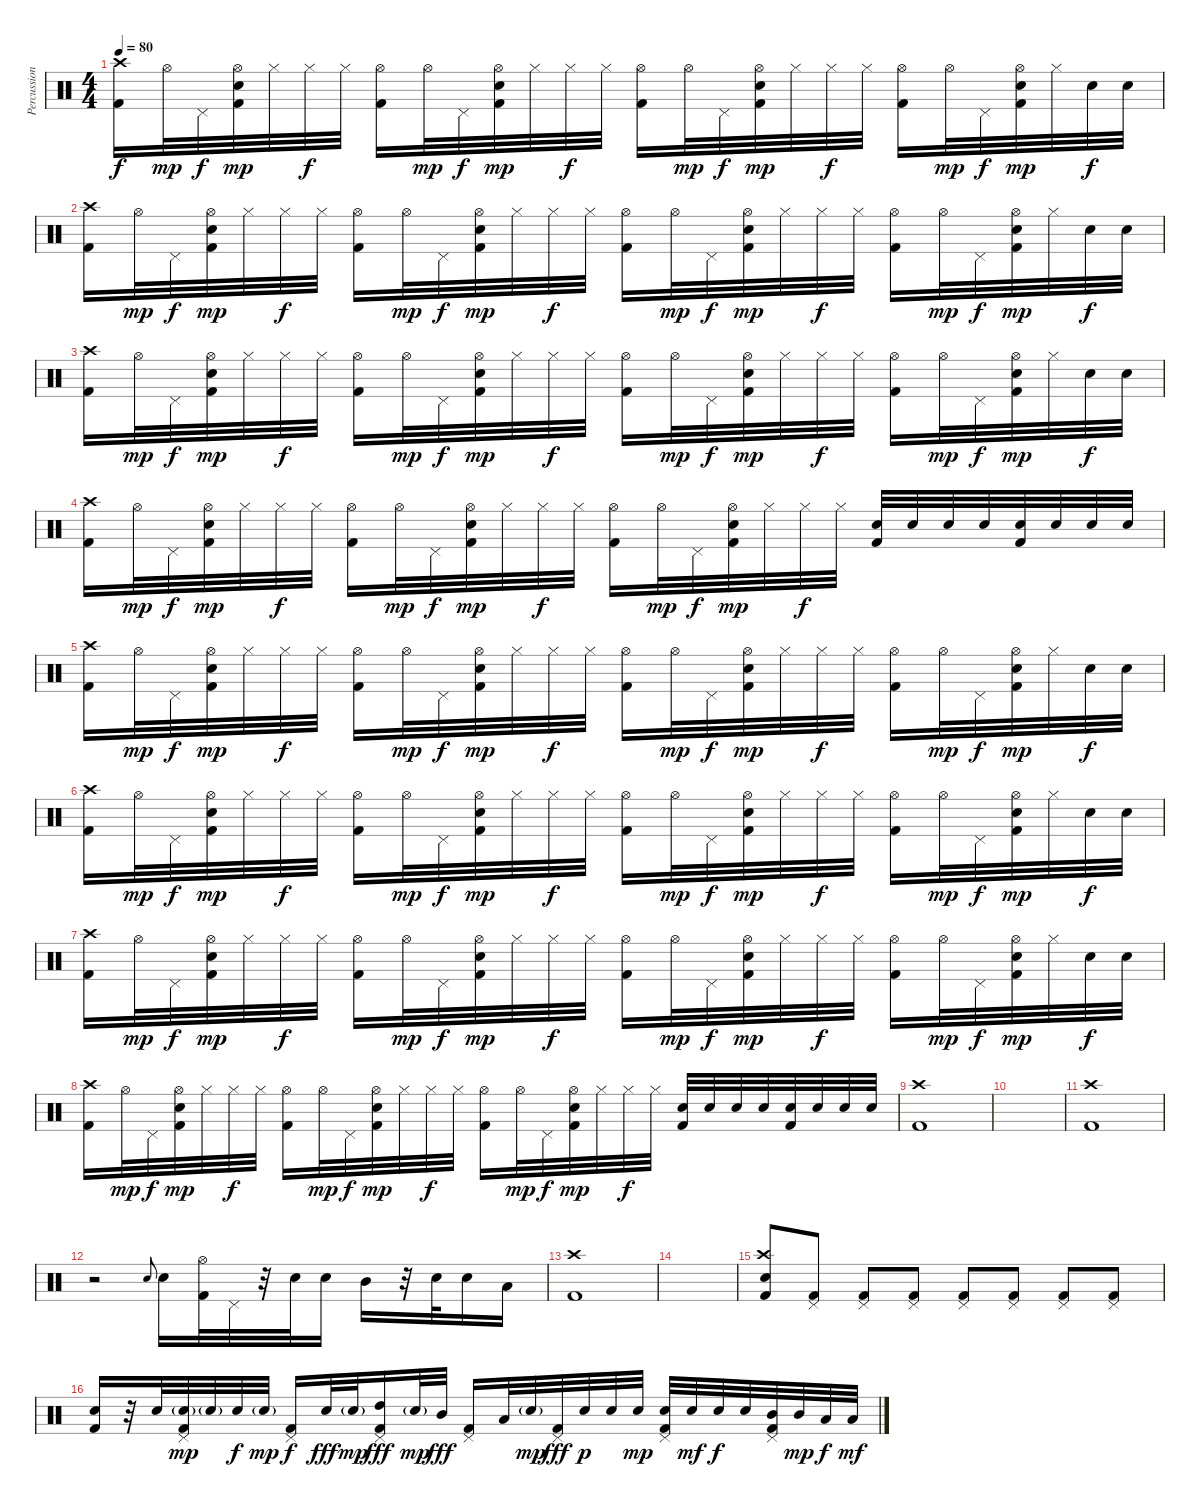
\track ("Percussion" "Percussion") {instrument percussion}
\staff {score}
\articulation defaults
\ts (4 4)
\tempo 80
\clef neutral
\ks c
("Kick (hit) 2" "Crash high (hit)").16{dy f} "Hi-Hat (open)".32{dy mp} "Pedal Hi-Hat (hit)".32{dy f} ("Hi-Hat (open)" "Electric Snare (hit)" "Kick (hit) 2").32{dy mp} "Hi-Hat (closed)".32 "Hi-Hat (closed)".32{dy f} "Hi-Hat (closed)".32 ("Kick (hit) 2" "Hi-Hat (open)").16 "Hi-Hat (open)".32{dy mp} "Pedal Hi-Hat (hit)".32{dy f} ("Hi-Hat (open)" "Electric Snare (hit)" "Kick (hit) 2").32{dy mp} "Hi-Hat (closed)".32 "Hi-Hat (closed)".32{dy f} "Hi-Hat (closed)".32 ("Kick (hit) 2" "Hi-Hat (open)").16 "Hi-Hat (open)".32{dy mp} "Pedal Hi-Hat (hit)".32{dy f} ("Hi-Hat (open)" "Electric Snare (hit)" "Kick (hit) 2").32{dy mp} "Hi-Hat (closed)".32 "Hi-Hat (closed)".32{dy f} "Hi-Hat (closed)".32 ("Kick (hit) 2" "Hi-Hat (open)").16 "Hi-Hat (open)".32{dy mp} "Pedal Hi-Hat (hit)".32{dy f} ("Hi-Hat (open)" "Electric Snare (hit)" "Kick (hit) 2").32{dy mp} "Hi-Hat (closed)".32 "Electric Snare (hit)".32{dy f} "Electric Snare (hit)".32 |
("Kick (hit) 2" "Crash high (hit)").16 "Hi-Hat (open)".32{dy mp} "Pedal Hi-Hat (hit)".32{dy f} ("Hi-Hat (open)" "Electric Snare (hit)" "Kick (hit) 2").32{dy mp} "Hi-Hat (closed)".32 "Hi-Hat (closed)".32{dy f} "Hi-Hat (closed)".32 ("Kick (hit) 2" "Hi-Hat (open)").16 "Hi-Hat (open)".32{dy mp} "Pedal Hi-Hat (hit)".32{dy f} ("Hi-Hat (open)" "Electric Snare (hit)" "Kick (hit) 2").32{dy mp} "Hi-Hat (closed)".32 "Hi-Hat (closed)".32{dy f} "Hi-Hat (closed)".32 ("Kick (hit) 2" "Hi-Hat (open)").16 "Hi-Hat (open)".32{dy mp} "Pedal Hi-Hat (hit)".32{dy f} ("Hi-Hat (open)" "Electric Snare (hit)" "Kick (hit) 2").32{dy mp} "Hi-Hat (closed)".32 "Hi-Hat (closed)".32{dy f} "Hi-Hat (closed)".32 ("Kick (hit) 2" "Hi-Hat (open)").16 "Hi-Hat (open)".32{dy mp} "Pedal Hi-Hat (hit)".32{dy f} ("Hi-Hat (open)" "Electric Snare (hit)" "Kick (hit) 2").32{dy mp} "Hi-Hat (closed)".32 "Electric Snare (hit)".32{dy f} "Electric Snare (hit)".32 |
("Kick (hit) 2" "Crash high (hit)").16 "Hi-Hat (open)".32{dy mp} "Pedal Hi-Hat (hit)".32{dy f} ("Hi-Hat (open)" "Electric Snare (hit)" "Kick (hit) 2").32{dy mp} "Hi-Hat (closed)".32 "Hi-Hat (closed)".32{dy f} "Hi-Hat (closed)".32 ("Kick (hit) 2" "Hi-Hat (open)").16 "Hi-Hat (open)".32{dy mp} "Pedal Hi-Hat (hit)".32{dy f} ("Hi-Hat (open)" "Electric Snare (hit)" "Kick (hit) 2").32{dy mp} "Hi-Hat (closed)".32 "Hi-Hat (closed)".32{dy f} "Hi-Hat (closed)".32 ("Kick (hit) 2" "Hi-Hat (open)").16 "Hi-Hat (open)".32{dy mp} "Pedal Hi-Hat (hit)".32{dy f} ("Hi-Hat (open)" "Electric Snare (hit)" "Kick (hit) 2").32{dy mp} "Hi-Hat (closed)".32 "Hi-Hat (closed)".32{dy f} "Hi-Hat (closed)".32 ("Kick (hit) 2" "Hi-Hat (open)").16 "Hi-Hat (open)".32{dy mp} "Pedal Hi-Hat (hit)".32{dy f} ("Hi-Hat (open)" "Electric Snare (hit)" "Kick (hit) 2").32{dy mp} "Hi-Hat (closed)".32 "Electric Snare (hit)".32{dy f} "Electric Snare (hit)".32 |
("Kick (hit) 2" "Crash high (hit)").16 "Hi-Hat (open)".32{dy mp} "Pedal Hi-Hat (hit)".32{dy f} ("Hi-Hat (open)" "Electric Snare (hit)" "Kick (hit) 2").32{dy mp} "Hi-Hat (closed)".32 "Hi-Hat (closed)".32{dy f} "Hi-Hat (closed)".32 ("Kick (hit) 2" "Hi-Hat (open)").16 "Hi-Hat (open)".32{dy mp} "Pedal Hi-Hat (hit)".32{dy f} ("Hi-Hat (open)" "Electric Snare (hit)" "Kick (hit) 2").32{dy mp} "Hi-Hat (closed)".32 "Hi-Hat (closed)".32{dy f} "Hi-Hat (closed)".32 ("Kick (hit) 2" "Hi-Hat (open)").16 "Hi-Hat (open)".32{dy mp} "Pedal Hi-Hat (hit)".32{dy f} ("Hi-Hat (open)" "Electric Snare (hit)" "Kick (hit) 2").32{dy mp} "Hi-Hat (closed)".32 "Hi-Hat (closed)".32{dy f} "Hi-Hat (closed)".32 ("Electric Snare (hit)" "Kick (hit) 2").32 "Electric Snare (hit)".32 "Electric Snare (hit)".32 "Electric Snare (hit)".32 ("Electric Snare (hit)" "Kick (hit) 2").32 "Electric Snare (hit)".32 "Electric Snare (hit)".32 "Electric Snare (hit)".32 |
("Kick (hit) 2" "Crash high (hit)").16 "Hi-Hat (open)".32{dy mp} "Pedal Hi-Hat (hit)".32{dy f} ("Hi-Hat (open)" "Electric Snare (hit)" "Kick (hit) 2").32{dy mp} "Hi-Hat (closed)".32 "Hi-Hat (closed)".32{dy f} "Hi-Hat (closed)".32 ("Kick (hit) 2" "Hi-Hat (open)").16 "Hi-Hat (open)".32{dy mp} "Pedal Hi-Hat (hit)".32{dy f} ("Hi-Hat (open)" "Electric Snare (hit)" "Kick (hit) 2").32{dy mp} "Hi-Hat (closed)".32 "Hi-Hat (closed)".32{dy f} "Hi-Hat (closed)".32 ("Kick (hit) 2" "Hi-Hat (open)").16 "Hi-Hat (open)".32{dy mp} "Pedal Hi-Hat (hit)".32{dy f} ("Hi-Hat (open)" "Electric Snare (hit)" "Kick (hit) 2").32{dy mp} "Hi-Hat (closed)".32 "Hi-Hat (closed)".32{dy f} "Hi-Hat (closed)".32 ("Kick (hit) 2" "Hi-Hat (open)").16 "Hi-Hat (open)".32{dy mp} "Pedal Hi-Hat (hit)".32{dy f} ("Hi-Hat (open)" "Electric Snare (hit)" "Kick (hit) 2").32{dy mp} "Hi-Hat (closed)".32 "Electric Snare (hit)".32{dy f} "Electric Snare (hit)".32 |
("Kick (hit) 2" "Crash high (hit)").16 "Hi-Hat (open)".32{dy mp} "Pedal Hi-Hat (hit)".32{dy f} ("Hi-Hat (open)" "Electric Snare (hit)" "Kick (hit) 2").32{dy mp} "Hi-Hat (closed)".32 "Hi-Hat (closed)".32{dy f} "Hi-Hat (closed)".32 ("Kick (hit) 2" "Hi-Hat (open)").16 "Hi-Hat (open)".32{dy mp} "Pedal Hi-Hat (hit)".32{dy f} ("Hi-Hat (open)" "Electric Snare (hit)" "Kick (hit) 2").32{dy mp} "Hi-Hat (closed)".32 "Hi-Hat (closed)".32{dy f} "Hi-Hat (closed)".32 ("Kick (hit) 2" "Hi-Hat (open)").16 "Hi-Hat (open)".32{dy mp} "Pedal Hi-Hat (hit)".32{dy f} ("Hi-Hat (open)" "Electric Snare (hit)" "Kick (hit) 2").32{dy mp} "Hi-Hat (closed)".32 "Hi-Hat (closed)".32{dy f} "Hi-Hat (closed)".32 ("Kick (hit) 2" "Hi-Hat (open)").16 "Hi-Hat (open)".32{dy mp} "Pedal Hi-Hat (hit)".32{dy f} ("Hi-Hat (open)" "Electric Snare (hit)" "Kick (hit) 2").32{dy mp} "Hi-Hat (closed)".32 "Electric Snare (hit)".32{dy f} "Electric Snare (hit)".32 |
("Kick (hit) 2" "Crash high (hit)").16 "Hi-Hat (open)".32{dy mp} "Pedal Hi-Hat (hit)".32{dy f} ("Hi-Hat (open)" "Electric Snare (hit)" "Kick (hit) 2").32{dy mp} "Hi-Hat (closed)".32 "Hi-Hat (closed)".32{dy f} "Hi-Hat (closed)".32 ("Kick (hit) 2" "Hi-Hat (open)").16 "Hi-Hat (open)".32{dy mp} "Pedal Hi-Hat (hit)".32{dy f} ("Hi-Hat (open)" "Electric Snare (hit)" "Kick (hit) 2").32{dy mp} "Hi-Hat (closed)".32 "Hi-Hat (closed)".32{dy f} "Hi-Hat (closed)".32 ("Kick (hit) 2" "Hi-Hat (open)").16 "Hi-Hat (open)".32{dy mp} "Pedal Hi-Hat (hit)".32{dy f} ("Hi-Hat (open)" "Electric Snare (hit)" "Kick (hit) 2").32{dy mp} "Hi-Hat (closed)".32 "Hi-Hat (closed)".32{dy f} "Hi-Hat (closed)".32 ("Kick (hit) 2" "Hi-Hat (open)").16 "Hi-Hat (open)".32{dy mp} "Pedal Hi-Hat (hit)".32{dy f} ("Hi-Hat (open)" "Electric Snare (hit)" "Kick (hit) 2").32{dy mp} "Hi-Hat (closed)".32 "Electric Snare (hit)".32{dy f} "Electric Snare (hit)".32 |
("Kick (hit) 2" "Crash high (hit)").16 "Hi-Hat (open)".32{dy mp} "Pedal Hi-Hat (hit)".32{dy f} ("Hi-Hat (open)" "Electric Snare (hit)" "Kick (hit) 2").32{dy mp} "Hi-Hat (closed)".32 "Hi-Hat (closed)".32{dy f} "Hi-Hat (closed)".32 ("Kick (hit) 2" "Hi-Hat (open)").16 "Hi-Hat (open)".32{dy mp} "Pedal Hi-Hat (hit)".32{dy f} ("Hi-Hat (open)" "Electric Snare (hit)" "Kick (hit) 2").32{dy mp} "Hi-Hat (closed)".32 "Hi-Hat (closed)".32{dy f} "Hi-Hat (closed)".32 ("Kick (hit) 2" "Hi-Hat (open)").16 "Hi-Hat (open)".32{dy mp} "Pedal Hi-Hat (hit)".32{dy f} ("Hi-Hat (open)" "Electric Snare (hit)" "Kick (hit) 2").32{dy mp} "Hi-Hat (closed)".32 "Hi-Hat (closed)".32{dy f} "Hi-Hat (closed)".32 ("Electric Snare (hit)" "Kick (hit) 2").32 "Electric Snare (hit)".32 "Electric Snare (hit)".32 "Electric Snare (hit)".32 ("Electric Snare (hit)" "Kick (hit) 2").32 "Electric Snare (hit)".32 "Electric Snare (hit)".32 "Electric Snare (hit)".32 |
("Kick (hit) 2" "Crash high (hit)").1 |
|
("Kick (hit) 2" "Crash high (hit)").1 |
r.2 "Electric Snare (hit)".8{gr onbeat} "Electric Snare (hit)".16 ("Kick (hit) 2" "Hi-Hat (open)").32 "Pedal Hi-Hat (hit)".32 r.32 "Electric Snare (hit)".32 "Electric Snare (hit)".16 "Mid Tom (hit)".16 r.32 "Electric Snare (hit)".32 "Electric Snare (hit)".16 "Low Tom (hit)".16 |
("Kick (hit) 2" "Crash high (hit)").1 |
|
("Crash high (hit)" "Kick (hit) 2" "Electric Snare (hit)").8 ("Kick (hit) 2" "Pedal Hi-Hat (hit)").8 ("Kick (hit) 2" "Pedal Hi-Hat (hit)").8 ("Kick (hit) 2" "Pedal Hi-Hat (hit)").8 ("Kick (hit) 2" "Pedal Hi-Hat (hit)").8 ("Kick (hit) 2" "Pedal Hi-Hat (hit)").8 ("Kick (hit) 2" "Pedal Hi-Hat (hit)").8 ("Kick (hit) 2" "Pedal Hi-Hat (hit)").8 |
("Kick (hit) 2" "Electric Snare (hit)").16 r.32 "Electric Snare (hit)".32 ("Kick (hit) 2" "Pedal Hi-Hat (hit)" "Electric Snare (hit)"{g}).32{dy mp} "Electric Snare (hit)"{g}.32 "Electric Snare (hit)".32{dy f} "Electric Snare (hit)"{g}.32{dy mp} ("Kick (hit) 2" "Pedal Hi-Hat (hit)").16{dy f} "Electric Snare (hit)".32{dy fff} "Electric Snare (hit)"{g}.32{dy mp} ("Kick (hit) 2" "Pedal Hi-Hat (hit)" "High Tom (hit)").16{dy fff} "Electric Snare (hit)"{g}.32{dy mp} "Mid Tom (hit)".32{dy fff} ("Kick (hit) 2" "Pedal Hi-Hat (hit)").16 "Low Tom (hit)".32 "Electric Snare (hit)"{g}.32{dy mp} ("Kick (hit) 2" "Pedal Hi-Hat (hit)").32{dy fff} "Electric Snare (hit)".32{dy p} "Electric Snare (hit)".32 "Electric Snare (hit)".32{dy mp} ("Electric Snare (hit)" "Kick (hit) 2" "Pedal Hi-Hat (hit)").32 "Electric Snare (hit)".32{dy mf} "Electric Snare (hit)".32{dy f} "Electric Snare (hit)".32 ("Mid Tom (hit)" "Kick (hit) 2" "Pedal Hi-Hat (hit)").32 "Mid Tom (hit)".32{dy mp} "Low Tom (hit)".32{dy f} "Low Tom (hit)".32{dy mf}
